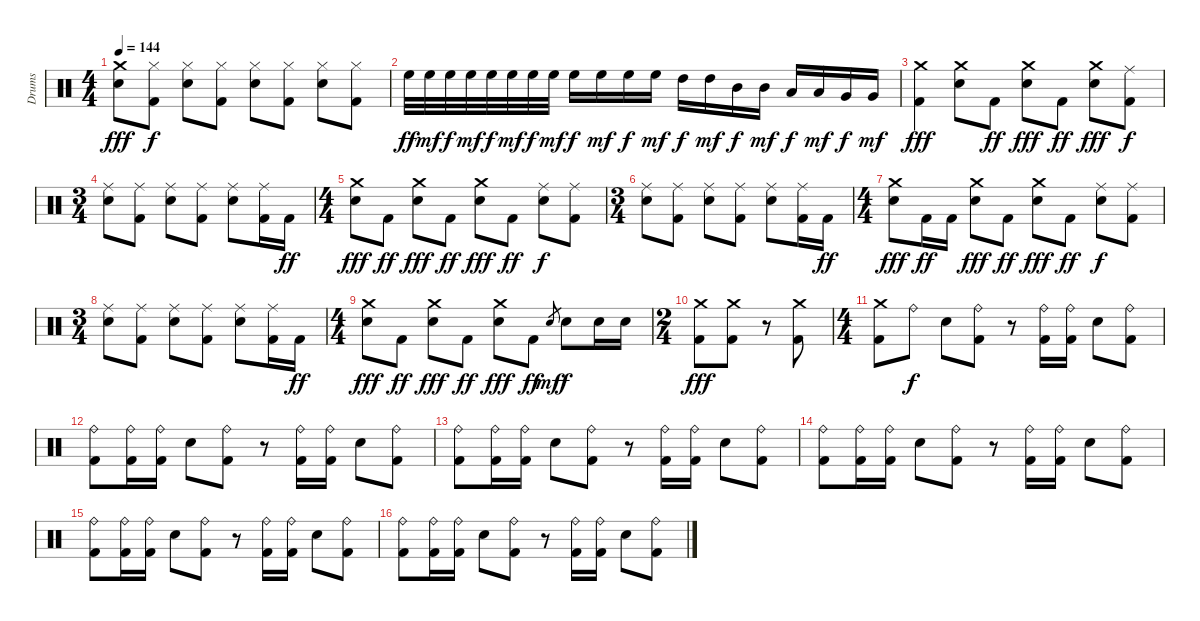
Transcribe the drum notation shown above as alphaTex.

\bracketExtendMode groupsimilarinstruments
\otherSystemsTrackNameOrientation horizontal
\track ("Drumkit" "Drums") {instrument percussion}
\staff {score}
\articulation defaults
\ts (4 4)
\tempo 144
\clef neutral
\ks c
("Crash medium (hit)" "Snare (hit) 2").8{dy fff beam Down} ("Hi-Hat (closed)" "Kick (hit) 2").8{dy f beam Down} ("Hi-Hat (closed)" "Snare (hit) 2").8{beam Down} ("Hi-Hat (closed)" "Kick (hit) 2").8{beam Down} ("Hi-Hat (closed)" "Snare (hit) 2").8{beam Down} ("Hi-Hat (closed)" "Kick (hit) 2").8{beam Down} ("Hi-Hat (closed)" "Snare (hit) 2").8{beam Down} ("Hi-Hat (closed)" "Kick (hit) 2").8{beam Down} |
"High Floor Tom (hit)".32{dy ff beam Down} "High Floor Tom (hit)".32{dy mf beam Down} "High Floor Tom (hit)".32{dy f beam Down} "High Floor Tom (hit)".32{dy mf beam Down} "High Floor Tom (hit)".32{dy f beam Down} "High Floor Tom (hit)".32{dy mf beam Down} "High Floor Tom (hit)".32{dy f beam Down} "High Floor Tom (hit)".32{dy mf beam Down} "High Floor Tom (hit)".16{dy f beam Down} "High Floor Tom (hit)".16{dy mf beam Down} "High Floor Tom (hit)".16{dy f beam Down} "High Floor Tom (hit)".16{dy mf beam Down} "High Tom (hit)".16{dy f beam Down} "High Tom (hit)".16{dy mf beam Down} "Mid Tom (hit)".16{dy f beam Down} "Mid Tom (hit)".16{dy mf beam Down} "Low Tom (hit)".16{dy f beam Up} "Low Tom (hit)".16{dy mf beam Up} "Very Low Tom (hit)".16{dy f beam Up} "Very Low Tom (hit)".16{dy mf beam Up} |
("Crash medium (hit)" "Kick (hit) 2").4{dy fff beam Down} ("Crash medium (hit)" "Snare (hit) 2").8{beam Down} "Kick (hit) 2".8{dy ff beam Down} ("Crash medium (hit)" "Snare (hit) 2").8{dy fff beam Down} "Kick (hit) 2".8{dy ff beam Down} ("Crash medium (hit)" "Snare (hit) 2").8{dy fff beam Down} ("Ride (middle)" "Kick (hit) 2").8{dy f beam Down} |
\ts (3 4)
("Ride (middle)" "Snare (hit) 2").8{beam Down} ("Ride (middle)" "Kick (hit) 2").8{beam Down} ("Ride (middle)" "Snare (hit) 2").8{beam Down} ("Ride (middle)" "Kick (hit) 2").8{beam Down} ("Ride (middle)" "Snare (hit) 2").8{beam Down} ("Ride (middle)" "Kick (hit) 2").16{beam Down} "Kick (hit) 2".16{dy ff beam Down} |
\ts (4 4)
("Crash medium (hit)" "Snare (hit) 2").8{dy fff beam Down} "Kick (hit) 2".8{dy ff beam Down} ("Crash medium (hit)" "Snare (hit) 2").8{dy fff beam Down} "Kick (hit) 2".8{dy ff beam Down} ("Crash medium (hit)" "Snare (hit) 2").8{dy fff beam Down} "Kick (hit) 2".8{dy ff beam Down} ("Ride (middle)" "Snare (hit) 2").8{dy f beam Down} ("Ride (middle)" "Kick (hit) 2").8{beam Down} |
\ts (3 4)
("Ride (middle)" "Snare (hit) 2").8{beam Down} ("Ride (middle)" "Kick (hit) 2").8{beam Down} ("Ride (middle)" "Snare (hit) 2").8{beam Down} ("Ride (middle)" "Kick (hit) 2").8{beam Down} ("Ride (middle)" "Snare (hit) 2").8{beam Down} ("Ride (middle)" "Kick (hit) 2").16{beam Down} "Kick (hit) 2".16{dy ff beam Down} |
\ts (4 4)
("Crash medium (hit)" "Snare (hit) 2").8{dy fff beam Down} "Kick (hit) 2".16{dy ff beam Down} "Kick (hit) 2".16{beam Down} ("Crash medium (hit)" "Snare (hit) 2").8{dy fff beam Down} "Kick (hit) 2".8{dy ff beam Down} ("Crash medium (hit)" "Snare (hit) 2").8{dy fff beam Down} "Kick (hit) 2".8{dy ff beam Down} ("Ride (middle)" "Snare (hit) 2").8{dy f beam Down} ("Ride (middle)" "Kick (hit) 2").8{beam Down} |
\ts (3 4)
("Ride (middle)" "Snare (hit) 2").8{beam Down} ("Ride (middle)" "Kick (hit) 2").8{beam Down} ("Ride (middle)" "Snare (hit) 2").8{beam Down} ("Ride (middle)" "Kick (hit) 2").8{beam Down} ("Ride (middle)" "Snare (hit) 2").8{beam Down} ("Ride (middle)" "Kick (hit) 2").16{beam Down} "Kick (hit) 2".16{dy ff beam Down} |
\ts (4 4)
("Crash medium (hit)" "Snare (hit) 2").8{dy fff beam Down} "Kick (hit) 2".8{dy ff beam Down} ("Crash medium (hit)" "Snare (hit) 2").8{dy fff beam Down} "Kick (hit) 2".8{dy ff beam Down} ("Crash medium (hit)" "Snare (hit) 2").8{dy fff beam Down} "Kick (hit) 2".8{dy ff beam Down} "Snare (hit) 2".8{gr dy mf beam Up} "Snare (hit) 2".8{dy f beam Down} "Snare (hit) 2".16{beam Down} "Snare (hit) 2".16{beam Down} |
\ts (2 4)
("Crash medium (hit)" "Kick (hit) 2").8{dy fff beam Down} ("Crash medium (hit)" "Kick (hit) 2").8{beam Down} r.8{beam Down} ("Crash medium (hit)" "Kick (hit) 2").8{beam Down} |
\ts (4 4)
("Crash medium (hit)" "Kick (hit) 2").8{beam Down} "Ride (bell)".8{dy f beam Down} "Snare (hit) 2".8{beam Down} ("Ride (bell)" "Kick (hit) 2").8{beam Down} r.8{beam Down} ("Ride (bell)" "Kick (hit) 2").16{beam Down} ("Ride (bell)" "Kick (hit) 2").16{beam Down} "Snare (hit) 2".8{beam Down} ("Ride (bell)" "Kick (hit) 2").8{beam Down} |
("Ride (bell)" "Kick (hit) 2").8{beam Down} ("Ride (bell)" "Kick (hit) 2").16{beam Down} ("Ride (bell)" "Kick (hit) 2").16{beam Down} "Snare (hit) 2".8{beam Down} ("Ride (bell)" "Kick (hit) 2").8{beam Down} r.8{beam Down} ("Ride (bell)" "Kick (hit) 2").16{beam Down} ("Ride (bell)" "Kick (hit) 2").16{beam Down} "Snare (hit) 2".8{beam Down} ("Ride (bell)" "Kick (hit) 2").8{beam Down} |
("Ride (bell)" "Kick (hit) 2").8{beam Down} ("Ride (bell)" "Kick (hit) 2").16{beam Down} ("Ride (bell)" "Kick (hit) 2").16{beam Down} "Snare (hit) 2".8{beam Down} ("Ride (bell)" "Kick (hit) 2").8{beam Down} r.8{beam Down} ("Ride (bell)" "Kick (hit) 2").16{beam Down} ("Ride (bell)" "Kick (hit) 2").16{beam Down} "Snare (hit) 2".8{beam Down} ("Ride (bell)" "Kick (hit) 2").8{beam Down} |
("Ride (bell)" "Kick (hit) 2").8{beam Down} ("Ride (bell)" "Kick (hit) 2").16{beam Down} ("Ride (bell)" "Kick (hit) 2").16{beam Down} "Snare (hit) 2".8{beam Down} ("Ride (bell)" "Kick (hit) 2").8{beam Down} r.8{beam Down} ("Ride (bell)" "Kick (hit) 2").16{beam Down} ("Ride (bell)" "Kick (hit) 2").16{beam Down} "Snare (hit) 2".8{beam Down} ("Ride (bell)" "Kick (hit) 2").8{beam Down} |
("Ride (bell)" "Kick (hit) 2").8{beam Down} ("Ride (bell)" "Kick (hit) 2").16{beam Down} ("Ride (bell)" "Kick (hit) 2").16{beam Down} "Snare (hit) 2".8{beam Down} ("Ride (bell)" "Kick (hit) 2").8{beam Down} r.8{beam Down} ("Ride (bell)" "Kick (hit) 2").16{beam Down} ("Ride (bell)" "Kick (hit) 2").16{beam Down} "Snare (hit) 2".8{beam Down} ("Ride (bell)" "Kick (hit) 2").8{beam Down} |
("Ride (bell)" "Kick (hit) 2").8{beam Down} ("Ride (bell)" "Kick (hit) 2").16{beam Down} ("Ride (bell)" "Kick (hit) 2").16{beam Down} "Snare (hit) 2".8{beam Down} ("Ride (bell)" "Kick (hit) 2").8{beam Down} r.8{beam Down} ("Ride (bell)" "Kick (hit) 2").16{beam Down} ("Ride (bell)" "Kick (hit) 2").16{beam Down} "Snare (hit) 2".8{beam Down} ("Ride (bell)" "Kick (hit) 2").8{beam Down}
